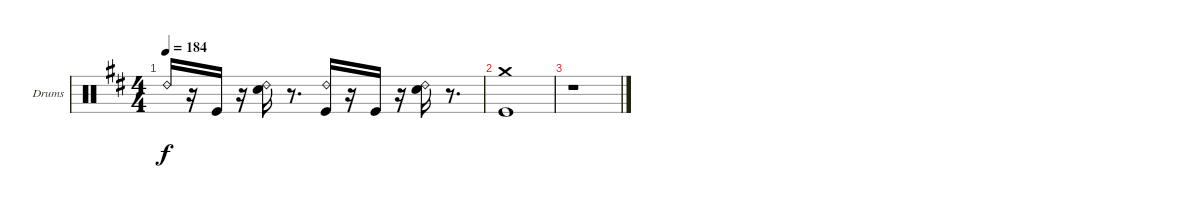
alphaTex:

\defaultSystemsLayout 4
\bracketExtendMode groupsimilarinstruments
\firstSystemTrackNameOrientation horizontal
\otherSystemsTrackNameOrientation horizontal
\track ("Drumkit" "Drums") {instrument percussion}
\staff {score}
\articulation defaults
\ts (4 4)
\tempo 184
\clef neutral
\ks d "Ride (bell) 2".16{dy f}
r.16 "Kick (hit)".16 r.16 ("Snare (hit) 2" "Ride (bell) 2").16 r.8{d} ("Kick (hit)" "Ride (bell) 2").16 r.16 "Kick (hit)".16 r.16 ("Snare (hit) 2" "Ride (bell) 2").16 r.8{d} |
("Kick (hit)" "Crash medium (hit)").1 |
r.1
